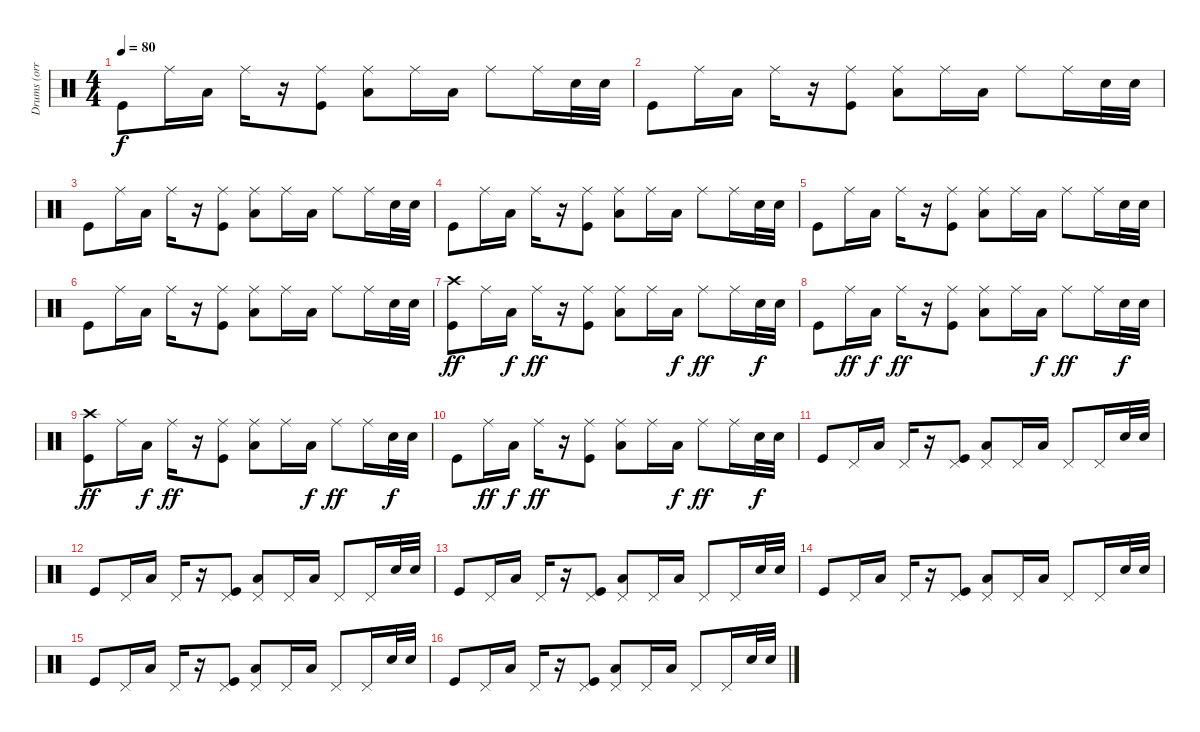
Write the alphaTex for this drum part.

\track ("Drums (orri páll dırason)" "Drums (orr") {instrument percussion}
\staff {score}
\articulation defaults
\ts (4 4)
\tempo 80
\clef neutral
\ks c "Kick (hit)".8{dy f} "Ride (middle)".16 "Low Tom (hit)".16 "Ride (middle)".16
r.16 ("Ride (middle)" "Kick (hit)").8 ("Ride (middle)" "Low Tom (hit)").8 "Ride (middle)".16 "Low Tom (hit)".16 "Ride (middle)".8 "Ride (middle)".16 "Electric Snare (hit)".32 "Electric Snare (hit)".32 |
"Kick (hit)".8 "Ride (middle)".16 "Low Tom (hit)".16 "Ride (middle)".16 r.16 ("Ride (middle)" "Kick (hit)").8 ("Ride (middle)" "Low Tom (hit)").8 "Ride (middle)".16 "Low Tom (hit)".16 "Ride (middle)".8 "Ride (middle)".16 "Electric Snare (hit)".32 "Electric Snare (hit)".32 |
"Kick (hit)".8 "Ride (middle)".16 "Low Tom (hit)".16 "Ride (middle)".16 r.16 ("Ride (middle)" "Kick (hit)").8 ("Ride (middle)" "Low Tom (hit)").8 "Ride (middle)".16 "Low Tom (hit)".16 "Ride (middle)".8 "Ride (middle)".16 "Electric Snare (hit)".32 "Electric Snare (hit)".32 |
"Kick (hit)".8 "Ride (middle)".16 "Low Tom (hit)".16 "Ride (middle)".16 r.16 ("Ride (middle)" "Kick (hit)").8 ("Ride (middle)" "Low Tom (hit)").8 "Ride (middle)".16 "Low Tom (hit)".16 "Ride (middle)".8 "Ride (middle)".16 "Electric Snare (hit)".32 "Electric Snare (hit)".32 |
"Kick (hit)".8 "Ride (middle)".16 "Low Tom (hit)".16 "Ride (middle)".16 r.16 ("Ride (middle)" "Kick (hit)").8 ("Ride (middle)" "Low Tom (hit)").8 "Ride (middle)".16 "Low Tom (hit)".16 "Ride (middle)".8 "Ride (middle)".16 "Electric Snare (hit)".32 "Electric Snare (hit)".32 |
"Kick (hit)".8 "Ride (middle)".16 "Low Tom (hit)".16 "Ride (middle)".16 r.16 ("Ride (middle)" "Kick (hit)").8 ("Ride (middle)" "Low Tom (hit)").8 "Ride (middle)".16 "Low Tom (hit)".16 "Ride (middle)".8 "Ride (middle)".16 "Electric Snare (hit)".32 "Electric Snare (hit)".32 |
("Crash high (hit)" "Kick (hit)").8{dy ff} "Ride (middle)".16 "Low Tom (hit)".16{dy f} "Ride (middle)".16{dy ff} r.16 ("Ride (middle)" "Kick (hit)").8 ("Ride (middle)" "Low Tom (hit)").8 "Ride (middle)".16 "Low Tom (hit)".16{dy f} "Ride (middle)".8{dy ff} "Ride (middle)".16 "Electric Snare (hit)".32{dy f} "Electric Snare (hit)".32 |
"Kick (hit)".8 "Ride (middle)".16{dy ff} "Low Tom (hit)".16{dy f} "Ride (middle)".16{dy ff} r.16 ("Ride (middle)" "Kick (hit)").8 ("Ride (middle)" "Low Tom (hit)").8 "Ride (middle)".16 "Low Tom (hit)".16{dy f} "Ride (middle)".8{dy ff} "Ride (middle)".16 "Electric Snare (hit)".32{dy f} "Electric Snare (hit)".32 |
("Crash high (hit)" "Kick (hit)").8{dy ff} "Ride (middle)".16 "Low Tom (hit)".16{dy f} "Ride (middle)".16{dy ff} r.16 ("Ride (middle)" "Kick (hit)").8 ("Ride (middle)" "Low Tom (hit)").8 "Ride (middle)".16 "Low Tom (hit)".16{dy f} "Ride (middle)".8{dy ff} "Ride (middle)".16 "Electric Snare (hit)".32{dy f} "Electric Snare (hit)".32 |
"Kick (hit)".8 "Ride (middle)".16{dy ff} "Low Tom (hit)".16{dy f} "Ride (middle)".16{dy ff} r.16 ("Ride (middle)" "Kick (hit)").8 ("Ride (middle)" "Low Tom (hit)").8 "Ride (middle)".16 "Low Tom (hit)".16{dy f} "Ride (middle)".8{dy ff} "Ride (middle)".16 "Electric Snare (hit)".32{dy f} "Electric Snare (hit)".32 |
"Kick (hit)".8 "Pedal Hi-Hat (hit)".16 "Low Floor Tom (hit)".16 "Pedal Hi-Hat (hit)".16 r.16 ("Pedal Hi-Hat (hit)" "Kick (hit)").8 ("Pedal Hi-Hat (hit)" "Low Floor Tom (hit)").8 "Pedal Hi-Hat (hit)".16 "Low Floor Tom (hit)".16 "Pedal Hi-Hat (hit)".8 "Pedal Hi-Hat (hit)".16 "Electric Snare (hit)".32 "Electric Snare (hit)".32 |
"Kick (hit)".8 "Pedal Hi-Hat (hit)".16 "Low Floor Tom (hit)".16 "Pedal Hi-Hat (hit)".16 r.16 ("Pedal Hi-Hat (hit)" "Kick (hit)").8 ("Pedal Hi-Hat (hit)" "Low Floor Tom (hit)").8 "Pedal Hi-Hat (hit)".16 "Low Floor Tom (hit)".16 "Pedal Hi-Hat (hit)".8 "Pedal Hi-Hat (hit)".16 "Electric Snare (hit)".32 "Electric Snare (hit)".32 |
"Kick (hit)".8 "Pedal Hi-Hat (hit)".16 "Low Floor Tom (hit)".16 "Pedal Hi-Hat (hit)".16 r.16 ("Pedal Hi-Hat (hit)" "Kick (hit)").8 ("Pedal Hi-Hat (hit)" "Low Floor Tom (hit)").8 "Pedal Hi-Hat (hit)".16 "Low Floor Tom (hit)".16 "Pedal Hi-Hat (hit)".8 "Pedal Hi-Hat (hit)".16 "Electric Snare (hit)".32 "Electric Snare (hit)".32 |
"Kick (hit)".8 "Pedal Hi-Hat (hit)".16 "Low Floor Tom (hit)".16 "Pedal Hi-Hat (hit)".16 r.16 ("Pedal Hi-Hat (hit)" "Kick (hit)").8 ("Pedal Hi-Hat (hit)" "Low Floor Tom (hit)").8 "Pedal Hi-Hat (hit)".16 "Low Floor Tom (hit)".16 "Pedal Hi-Hat (hit)".8 "Pedal Hi-Hat (hit)".16 "Electric Snare (hit)".32 "Electric Snare (hit)".32 |
"Kick (hit)".8 "Pedal Hi-Hat (hit)".16 "Low Floor Tom (hit)".16 "Pedal Hi-Hat (hit)".16 r.16 ("Pedal Hi-Hat (hit)" "Kick (hit)").8 ("Pedal Hi-Hat (hit)" "Low Floor Tom (hit)").8 "Pedal Hi-Hat (hit)".16 "Low Floor Tom (hit)".16 "Pedal Hi-Hat (hit)".8 "Pedal Hi-Hat (hit)".16 "Electric Snare (hit)".32 "Electric Snare (hit)".32 |
"Kick (hit)".8 "Pedal Hi-Hat (hit)".16 "Low Floor Tom (hit)".16 "Pedal Hi-Hat (hit)".16 r.16 ("Pedal Hi-Hat (hit)" "Kick (hit)").8 ("Pedal Hi-Hat (hit)" "Low Floor Tom (hit)").8 "Pedal Hi-Hat (hit)".16 "Low Floor Tom (hit)".16 "Pedal Hi-Hat (hit)".8 "Pedal Hi-Hat (hit)".16 "Electric Snare (hit)".32 "Electric Snare (hit)".32
